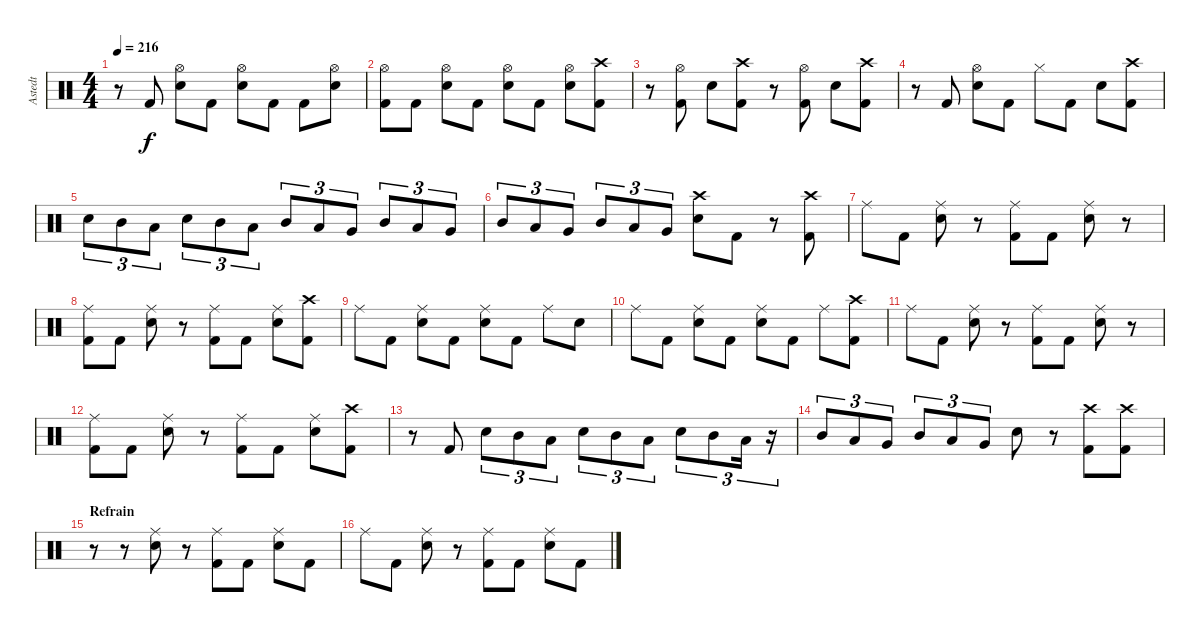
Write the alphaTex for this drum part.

\track ("Astedt" "Astedt") {instrument percussion}
\staff {score}
\articulation defaults
\ts (4 4)
\tempo 216
\clef neutral
\ks c
r.8{dy f} "Kick (hit) 2".8 ("Hi-Hat (open)" "Snare (hit) 2").8 "Kick (hit) 2".8 ("Hi-Hat (open)" "Snare (hit) 2").8 "Kick (hit) 2".8 "Kick (hit) 2".8 ("Hi-Hat (open)" "Snare (hit) 2").8 |
("Hi-Hat (open)" "Kick (hit) 2").8 "Kick (hit) 2".8 ("Hi-Hat (open)" "Snare (hit) 2").8 "Kick (hit) 2".8 ("Hi-Hat (open)" "Snare (hit) 2").8 "Kick (hit) 2".8 ("Hi-Hat (open)" "Snare (hit) 2").8 ("Crash high (hit)" "Kick (hit) 2").8 |
r.8 ("Hi-Hat (open)" "Kick (hit) 2").8 "Snare (hit) 2".8 ("Crash high (hit)" "Kick (hit) 2").8 r.8 ("Hi-Hat (open)" "Kick (hit) 2").8 "Snare (hit) 2".8 ("Crash high (hit)" "Kick (hit) 2").8 |
r.8 "Kick (hit) 2".8 ("Hi-Hat (open)" "Snare (hit) 2").8 "Kick (hit) 2".8 "Hi-Hat (closed)".8 "Kick (hit) 2".8 "Snare (hit) 2".8 ("Crash high (hit)" "Kick (hit) 2").8 |
"Snare (hit) 2".8{tu (3 2)} "Mid Tom (hit)".8{tu (3 2)} "Low Tom (hit)".8{tu (3 2)} "Snare (hit) 2".8{tu (3 2)} "Mid Tom (hit)".8{tu (3 2)} "Low Tom (hit)".8{tu (3 2)} "Mid Tom (hit)".8{tu (3 2)} "Low Tom (hit)".8{tu (3 2)} "Very Low Tom (hit)".8{tu (3 2)} "Mid Tom (hit)".8{tu (3 2)} "Low Tom (hit)".8{tu (3 2)} "Very Low Tom (hit)".8{tu (3 2)} |
"Mid Tom (hit)".8{tu (3 2)} "Low Tom (hit)".8{tu (3 2)} "Very Low Tom (hit)".8{tu (3 2)} "Mid Tom (hit)".8{tu (3 2)} "Low Tom (hit)".8{tu (3 2)} "Very Low Tom (hit)".8{tu (3 2)} ("Crash high (hit)" "Snare (hit) 2").8 "Kick (hit) 2".8 r.8 ("Crash high (hit)" "Kick (hit) 2").8 |
"Ride (middle)".8 "Kick (hit) 2".8 ("Ride (middle)" "Snare (hit) 2").8 r.8 ("Ride (middle)" "Kick (hit) 2").8 "Kick (hit) 2".8 ("Ride (middle)" "Snare (hit) 2").8 r.8 |
("Ride (middle)" "Kick (hit) 2").8 "Kick (hit) 2".8 ("Ride (middle)" "Snare (hit) 2").8 r.8 ("Ride (middle)" "Kick (hit) 2").8 "Kick (hit) 2".8 ("Ride (middle)" "Snare (hit) 2").8 ("Crash high (hit)" "Kick (hit) 2").8 |
"Ride (middle)".8 "Kick (hit) 2".8 ("Ride (middle)" "Snare (hit) 2").8 "Kick (hit) 2".8 ("Ride (middle)" "Snare (hit) 2").8 "Kick (hit) 2".8 "Ride (middle)".8 "Snare (hit) 2".8 |
"Ride (middle)".8 "Kick (hit) 2".8 ("Ride (middle)" "Snare (hit) 2").8 "Kick (hit) 2".8 ("Ride (middle)" "Snare (hit) 2").8 "Kick (hit) 2".8 "Ride (middle)".8 ("Crash high (hit)" "Kick (hit) 2").8 |
"Ride (middle)".8 "Kick (hit) 2".8 ("Ride (middle)" "Snare (hit) 2").8 r.8 ("Ride (middle)" "Kick (hit) 2").8 "Kick (hit) 2".8 ("Ride (middle)" "Snare (hit) 2").8 r.8 |
("Ride (middle)" "Kick (hit) 2").8 "Kick (hit) 2".8 ("Ride (middle)" "Snare (hit) 2").8 r.8 ("Ride (middle)" "Kick (hit) 2").8 "Kick (hit) 2".8 ("Ride (middle)" "Snare (hit) 2").8 ("Crash high (hit)" "Kick (hit) 2").8 |
r.8 "Kick (hit) 2".8 "Snare (hit) 2".8{tu (3 2)} "Mid Tom (hit)".8{tu (3 2)} "Low Tom (hit)".8{tu (3 2)} "Snare (hit) 2".8{tu (3 2)} "Mid Tom (hit)".8{tu (3 2)} "Low Tom (hit)".8{tu (3 2)} "Snare (hit) 2".8{tu (3 2)} "Mid Tom (hit)".8{tu (3 2)} "Low Tom (hit)".16{tu (3 2)} r.16{tu (3 2)} |
"Mid Tom (hit)".8{tu (3 2)} "Low Tom (hit)".8{tu (3 2)} "Very Low Tom (hit)".8{tu (3 2)} "Mid Tom (hit)".8{tu (3 2)} "Low Tom (hit)".8{tu (3 2)} "Very Low Tom (hit)".8{tu (3 2)} "Snare (hit) 2".8 r.8 ("Crash high (hit)" "Kick (hit) 2").8 ("Crash high (hit)" "Kick (hit) 2").8 |
\section ("" "Refrain")
r.8 r.8 ("Ride (middle)" "Snare (hit) 2").8 r.8 ("Ride (middle)" "Kick (hit) 2").8 "Kick (hit) 2".8 ("Ride (middle)" "Snare (hit) 2").8 "Kick (hit) 2".8 |
"Ride (middle)".8 "Kick (hit) 2".8 ("Ride (middle)" "Snare (hit) 2").8 r.8 ("Ride (middle)" "Kick (hit) 2").8 "Kick (hit) 2".8 ("Ride (middle)" "Snare (hit) 2").8 "Kick (hit) 2".8
